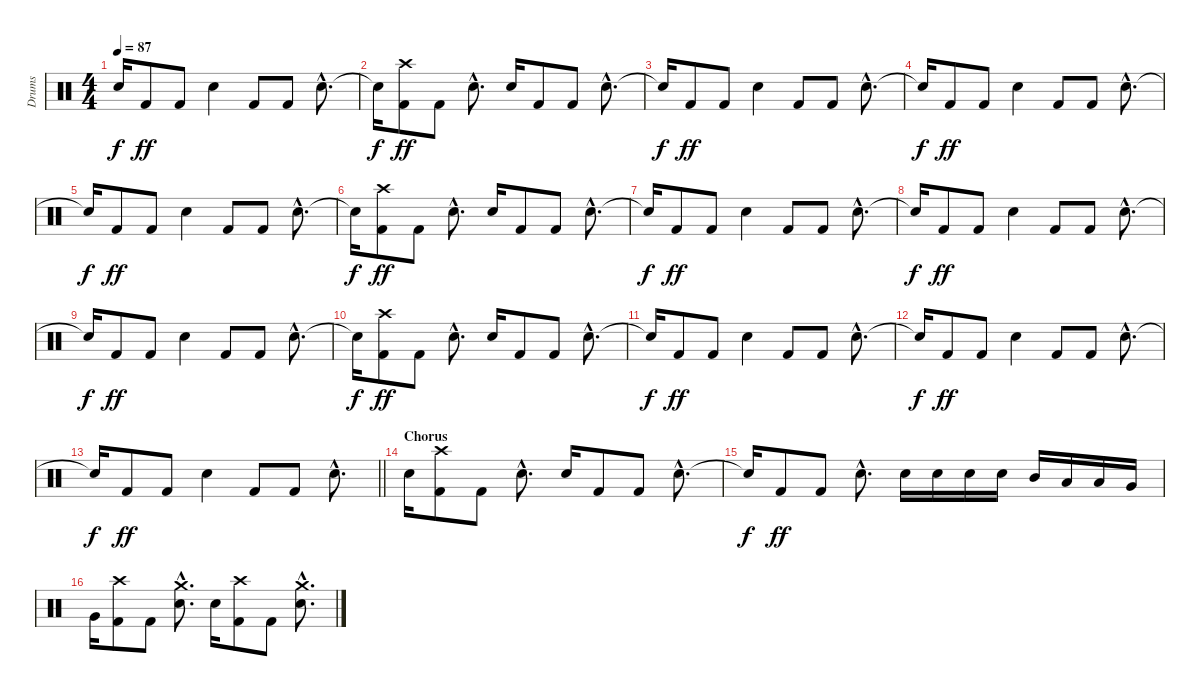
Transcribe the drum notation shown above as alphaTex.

\track ("Drums" "Drums") {instrument percussion}
\staff {score}
\articulation defaults
\ts (4 4)
\tempo 87
\clef neutral
\ks c "Snare (hit)"{t}.16{dy f} "Kick (hit) 2".8{dy ff} "Kick (hit) 2".8 "Electric Snare (hit)".4 "Kick (hit) 2".8 "Kick (hit) 2".8 "Electric Snare (hit)"{hac}.8{d}
|
"Snare (hit)"{t}.16{dy f} ("Kick (hit) 2" "Crash high (hit)").8{dy ff} "Kick (hit) 2".8 "Electric Snare (hit)"{hac}.8{d} "Electric Snare (hit)".16 "Kick (hit) 2".8 "Kick (hit) 2".8 "Electric Snare (hit)"{hac}.8{d} |
"Snare (hit)"{t}.16{dy f} "Kick (hit) 2".8{dy ff} "Kick (hit) 2".8 "Electric Snare (hit)".4 "Kick (hit) 2".8 "Kick (hit) 2".8 "Electric Snare (hit)"{hac}.8{d} |
"Snare (hit)"{t}.16{dy f} "Kick (hit) 2".8{dy ff} "Kick (hit) 2".8 "Electric Snare (hit)".4 "Kick (hit) 2".8 "Kick (hit) 2".8 "Electric Snare (hit)"{hac}.8{d} |
"Snare (hit)"{t}.16{dy f} "Kick (hit) 2".8{dy ff} "Kick (hit) 2".8 "Electric Snare (hit)".4 "Kick (hit) 2".8 "Kick (hit) 2".8 "Electric Snare (hit)"{hac}.8{d} |
"Snare (hit)"{t}.16{dy f} ("Kick (hit) 2" "Crash high (hit)").8{dy ff} "Kick (hit) 2".8 "Electric Snare (hit)"{hac}.8{d} "Electric Snare (hit)".16 "Kick (hit) 2".8 "Kick (hit) 2".8 "Electric Snare (hit)"{hac}.8{d} |
"Snare (hit)"{t}.16{dy f} "Kick (hit) 2".8{dy ff} "Kick (hit) 2".8 "Electric Snare (hit)".4 "Kick (hit) 2".8 "Kick (hit) 2".8 "Electric Snare (hit)"{hac}.8{d} |
"Snare (hit)"{t}.16{dy f} "Kick (hit) 2".8{dy ff} "Kick (hit) 2".8 "Electric Snare (hit)".4 "Kick (hit) 2".8 "Kick (hit) 2".8 "Electric Snare (hit)"{hac}.8{d} |
"Snare (hit)"{t}.16{dy f} "Kick (hit) 2".8{dy ff} "Kick (hit) 2".8 "Electric Snare (hit)".4 "Kick (hit) 2".8 "Kick (hit) 2".8 "Electric Snare (hit)"{hac}.8{d} |
"Snare (hit)"{t}.16{dy f} ("Kick (hit) 2" "Crash high (hit)").8{dy ff} "Kick (hit) 2".8 "Electric Snare (hit)"{hac}.8{d} "Electric Snare (hit)".16 "Kick (hit) 2".8 "Kick (hit) 2".8 "Electric Snare (hit)"{hac}.8{d} |
"Snare (hit)"{t}.16{dy f} "Kick (hit) 2".8{dy ff} "Kick (hit) 2".8 "Electric Snare (hit)".4 "Kick (hit) 2".8 "Kick (hit) 2".8 "Electric Snare (hit)"{hac}.8{d} |
"Snare (hit)"{t}.16{dy f} "Kick (hit) 2".8{dy ff} "Kick (hit) 2".8 "Electric Snare (hit)".4 "Kick (hit) 2".8 "Kick (hit) 2".8 "Electric Snare (hit)"{hac}.8{d} |
\barLineRight lightlight "Snare (hit)"{t}.16{dy f} "Kick (hit) 2".8{dy ff} "Kick (hit) 2".8 "Electric Snare (hit)".4 "Kick (hit) 2".8 "Kick (hit) 2".8 "Electric Snare (hit)"{hac}.8{d}
|
\section ("" "Chorus")
"Electric Snare (hit)".16 ("Kick (hit) 2" "Crash high (hit)").8 "Kick (hit) 2".8 "Electric Snare (hit)"{hac}.8{d} "Electric Snare (hit)".16 "Kick (hit) 2".8 "Kick (hit) 2".8 "Electric Snare (hit)"{hac}.8{d} |
"Snare (hit)"{t}.16{dy f} "Kick (hit) 2".8{dy ff} "Kick (hit) 2".8 "Electric Snare (hit)"{hac}.8{d} "Electric Snare (hit)".16 "Electric Snare (hit)".16 "Electric Snare (hit)".16 "Electric Snare (hit)".16 "Mid Tom (hit)".16 "Low Tom (hit)".16 "Low Tom (hit)".16 "Very Low Tom (hit)".16 |
"Very Low Tom (hit)".16 ("Kick (hit) 2" "Crash high (hit)").8 "Kick (hit) 2".8 ("Electric Snare (hit)"{hac} "Crash medium (hit)"{hac}).8{d} "Electric Snare (hit)".16 ("Kick (hit) 2" "Crash high (hit)").8 "Kick (hit) 2".8 ("Electric Snare (hit)"{hac} "Crash medium (hit)"{hac}).8{d}
